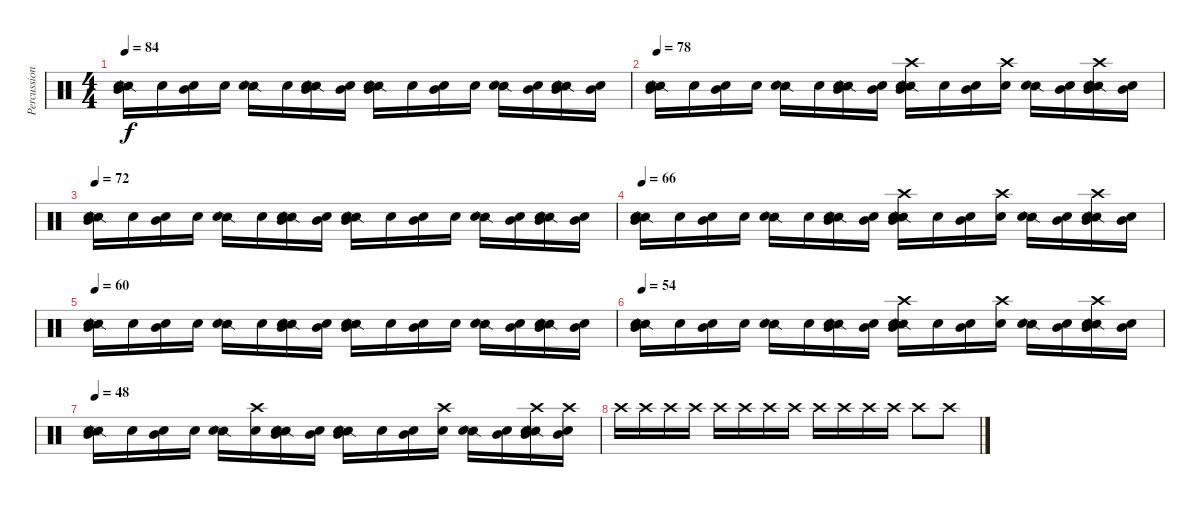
\track ("Percussion" "Percussion") {instrument percussion}
\staff {score}
\articulation defaults
\ts (4 4)
\tempo 84
\clef neutral
\ks c
("Mid Tom (hit)" "Snare (side stick) 2" "Snare (hit) 2").16{dy f} "Snare (hit) 2".16 ("Mid Tom (hit)" "Snare (hit) 2").16 "Snare (hit) 2".16 ("Snare (side stick) 2" "Snare (hit) 2").16 "Snare (hit) 2".16 ("Mid Tom (hit)" "Snare (side stick) 2" "Snare (hit) 2").16 ("Mid Tom (hit)" "Snare (hit) 2").16 ("Mid Tom (hit)" "Snare (side stick) 2" "Snare (hit) 2").16 "Snare (hit) 2".16 ("Mid Tom (hit)" "Snare (hit) 2").16 "Snare (hit) 2".16 ("Snare (side stick) 2" "Snare (hit) 2").16 ("Mid Tom (hit)" "Snare (hit) 2").16 ("Mid Tom (hit)" "Snare (side stick) 2" "Snare (hit) 2").16 ("Mid Tom (hit)" "Snare (hit) 2").16 |
\tempo 78
("Mid Tom (hit)" "Snare (side stick) 2" "Snare (hit) 2").16 "Snare (hit) 2".16 ("Mid Tom (hit)" "Snare (hit) 2").16 "Snare (hit) 2".16 ("Snare (side stick) 2" "Snare (hit) 2").16 "Snare (hit) 2".16 ("Mid Tom (hit)" "Snare (side stick) 2" "Snare (hit) 2").16 ("Mid Tom (hit)" "Snare (hit) 2").16 ("Mid Tom (hit)" "Crash high (hit)" "Snare (side stick) 2" "Snare (hit) 2").16 "Snare (hit) 2".16 ("Mid Tom (hit)" "Snare (hit) 2").16 ("Crash high (hit)" "Snare (hit) 2").16 ("Snare (side stick) 2" "Snare (hit) 2").16 ("Mid Tom (hit)" "Snare (hit) 2").16 ("Mid Tom (hit)" "Crash high (hit)" "Snare (side stick) 2" "Snare (hit) 2").16 ("Mid Tom (hit)" "Snare (hit) 2").16 |
\tempo 72
("Mid Tom (hit)" "Snare (side stick) 2" "Snare (hit) 2").16 "Snare (hit) 2".16 ("Mid Tom (hit)" "Snare (hit) 2").16 "Snare (hit) 2".16 ("Snare (side stick) 2" "Snare (hit) 2").16 "Snare (hit) 2".16 ("Mid Tom (hit)" "Snare (side stick) 2" "Snare (hit) 2").16 ("Mid Tom (hit)" "Snare (hit) 2").16 ("Mid Tom (hit)" "Snare (side stick) 2" "Snare (hit) 2").16 "Snare (hit) 2".16 ("Mid Tom (hit)" "Snare (hit) 2").16 "Snare (hit) 2".16 ("Snare (side stick) 2" "Snare (hit) 2").16 ("Mid Tom (hit)" "Snare (hit) 2").16 ("Mid Tom (hit)" "Snare (side stick) 2" "Snare (hit) 2").16 ("Mid Tom (hit)" "Snare (hit) 2").16 |
\tempo 66
("Mid Tom (hit)" "Snare (side stick) 2" "Snare (hit) 2").16 "Snare (hit) 2".16 ("Mid Tom (hit)" "Snare (hit) 2").16 "Snare (hit) 2".16 ("Snare (side stick) 2" "Snare (hit) 2").16 "Snare (hit) 2".16 ("Mid Tom (hit)" "Snare (side stick) 2" "Snare (hit) 2").16 ("Mid Tom (hit)" "Snare (hit) 2").16 ("Mid Tom (hit)" "Crash high (hit)" "Snare (side stick) 2" "Snare (hit) 2").16 "Snare (hit) 2".16 ("Mid Tom (hit)" "Snare (hit) 2").16 ("Crash high (hit)" "Snare (hit) 2").16 ("Snare (side stick) 2" "Snare (hit) 2").16 ("Mid Tom (hit)" "Snare (hit) 2").16 ("Mid Tom (hit)" "Crash high (hit)" "Snare (side stick) 2" "Snare (hit) 2").16 ("Mid Tom (hit)" "Snare (hit) 2").16 |
\tempo 60
("Mid Tom (hit)" "Snare (side stick) 2" "Snare (hit) 2").16 "Snare (hit) 2".16 ("Mid Tom (hit)" "Snare (hit) 2").16 "Snare (hit) 2".16 ("Snare (side stick) 2" "Snare (hit) 2").16 "Snare (hit) 2".16 ("Mid Tom (hit)" "Snare (side stick) 2" "Snare (hit) 2").16 ("Mid Tom (hit)" "Snare (hit) 2").16 ("Mid Tom (hit)" "Snare (side stick) 2" "Snare (hit) 2").16 "Snare (hit) 2".16 ("Mid Tom (hit)" "Snare (hit) 2").16 "Snare (hit) 2".16 ("Snare (side stick) 2" "Snare (hit) 2").16 ("Mid Tom (hit)" "Snare (hit) 2").16 ("Mid Tom (hit)" "Snare (side stick) 2" "Snare (hit) 2").16 ("Mid Tom (hit)" "Snare (hit) 2").16 |
\tempo 54
("Mid Tom (hit)" "Snare (side stick) 2" "Snare (hit) 2").16 "Snare (hit) 2".16 ("Mid Tom (hit)" "Snare (hit) 2").16 "Snare (hit) 2".16 ("Snare (side stick) 2" "Snare (hit) 2").16 "Snare (hit) 2".16 ("Mid Tom (hit)" "Snare (side stick) 2" "Snare (hit) 2").16 ("Mid Tom (hit)" "Snare (hit) 2").16 ("Mid Tom (hit)" "Crash high (hit)" "Snare (side stick) 2" "Snare (hit) 2").16 "Snare (hit) 2".16 ("Mid Tom (hit)" "Snare (hit) 2").16 ("Crash high (hit)" "Snare (hit) 2").16 ("Snare (side stick) 2" "Snare (hit) 2").16 ("Mid Tom (hit)" "Snare (hit) 2").16 ("Mid Tom (hit)" "Crash high (hit)" "Snare (side stick) 2" "Snare (hit) 2").16 ("Mid Tom (hit)" "Snare (hit) 2").16 |
\tempo 48
("Mid Tom (hit)" "Snare (side stick) 2" "Snare (hit) 2").16 "Snare (hit) 2".16 ("Mid Tom (hit)" "Snare (hit) 2").16 "Snare (hit) 2".16 ("Snare (side stick) 2" "Snare (hit) 2").16 ("Crash high (hit)" "Snare (hit) 2").16 ("Mid Tom (hit)" "Snare (side stick) 2" "Snare (hit) 2").16 ("Mid Tom (hit)" "Snare (hit) 2").16 ("Mid Tom (hit)" "Snare (side stick) 2" "Snare (hit) 2").16 "Snare (hit) 2".16 ("Mid Tom (hit)" "Snare (hit) 2").16 ("Crash high (hit)" "Snare (hit) 2").16 ("Snare (side stick) 2" "Snare (hit) 2").16 ("Mid Tom (hit)" "Snare (hit) 2").16 ("Mid Tom (hit)" "Crash high (hit)" "Snare (side stick) 2" "Snare (hit) 2").16 ("Mid Tom (hit)" "Crash high (hit)" "Snare (hit) 2").16 |
"Crash high (hit)".16{volume 12} "Crash high (hit)".16 "Crash high (hit)".16 "Crash high (hit)".16{volume 11} "Crash high (hit)".16{volume 10} "Crash high (hit)".16{volume 9} "Crash high (hit)".16{volume 8} "Crash high (hit)".16{volume 7} "Crash high (hit)".16{volume 6} "Crash high (hit)".16 "Crash high (hit)".16{volume 5} "Crash high (hit)".16{volume 4} "Crash high (hit)".8{volume 2} "Crash high (hit)".8{volume 1}
